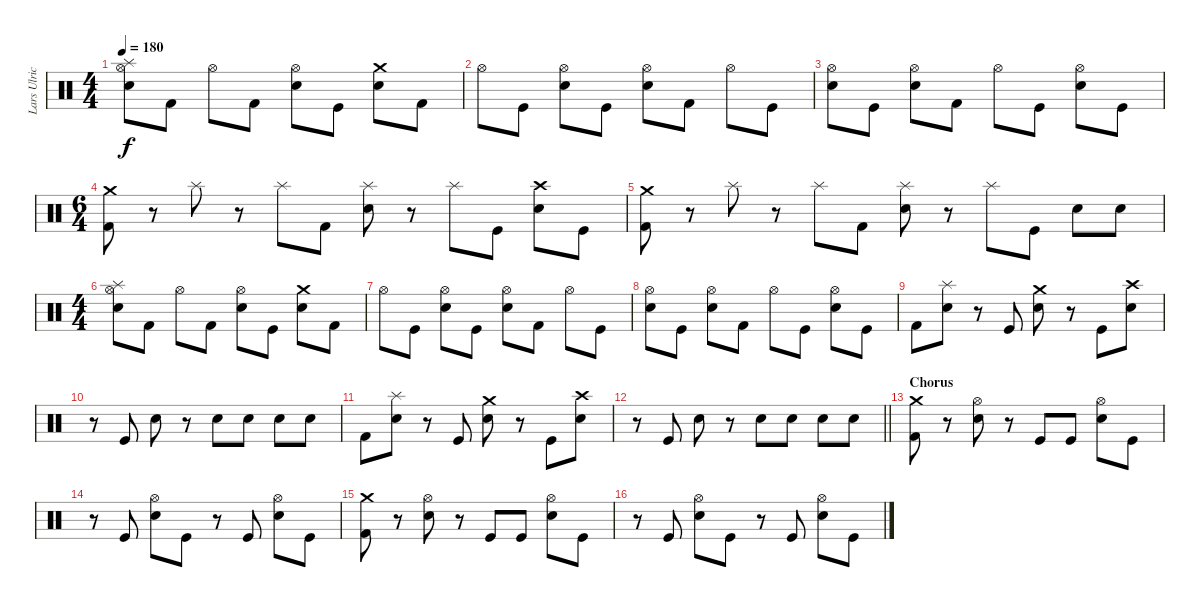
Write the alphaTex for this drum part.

\track ("Lars Ulrich" "Lars Ulric") {instrument percussion}
\staff {score}
\articulation defaults
\ts (4 4)
\tempo 180
\clef neutral
\ks c
("Splash (hit)" "Hi-Hat (open)" "Electric Snare (hit)").8{dy f} "Kick (hit) 2".8 "Hi-Hat (open)".8 "Kick (hit) 2".8 ("Hi-Hat (open)" "Electric Snare (hit)").8 "Kick (hit)".8 ("Crash medium (hit)" "Electric Snare (hit)").8 "Kick (hit) 2".8 |
"Hi-Hat (open)".8 "Kick (hit)".8 ("Hi-Hat (open)" "Electric Snare (hit)").8 "Kick (hit)".8 ("Hi-Hat (open)" "Electric Snare (hit)").8 "Kick (hit) 2".8 "Hi-Hat (open)".8 "Kick (hit)".8 |
("Hi-Hat (open)" "Electric Snare (hit)").8 "Kick (hit)".8 ("Hi-Hat (open)" "Electric Snare (hit)").8 "Kick (hit) 2".8 "Hi-Hat (open)".8 "Kick (hit)".8 ("Hi-Hat (open)" "Electric Snare (hit)").8 "Kick (hit)".8 |
\ts (6 4)
("Crash medium (hit)" "Kick (hit) 2").8 r.8 "Splash (hit)".8 r.8 "Splash (hit)".8 "Kick (hit) 2".8 ("Splash (hit)" "Electric Snare (hit)").8 r.8 "Splash (hit)".8 "Kick (hit)".8 ("Crash high (hit)" "Electric Snare (hit)").8 "Kick (hit)".8 |
("Crash medium (hit)" "Kick (hit) 2").8 r.8 "Splash (hit)".8 r.8 "Splash (hit)".8 "Kick (hit) 2".8 ("Splash (hit)" "Electric Snare (hit)").8 r.8 "Splash (hit)".8 "Kick (hit)".8 "Electric Snare (hit)".8 "Electric Snare (hit)".8 |
\ts (4 4)
("Splash (hit)" "Hi-Hat (open)" "Electric Snare (hit)").8 "Kick (hit) 2".8 "Hi-Hat (open)".8 "Kick (hit) 2".8 ("Hi-Hat (open)" "Electric Snare (hit)").8 "Kick (hit)".8 ("Crash medium (hit)" "Electric Snare (hit)").8 "Kick (hit) 2".8 |
"Hi-Hat (open)".8 "Kick (hit)".8 ("Hi-Hat (open)" "Electric Snare (hit)").8 "Kick (hit)".8 ("Hi-Hat (open)" "Electric Snare (hit)").8 "Kick (hit) 2".8 "Hi-Hat (open)".8 "Kick (hit)".8 |
("Hi-Hat (open)" "Electric Snare (hit)").8 "Kick (hit)".8 ("Hi-Hat (open)" "Electric Snare (hit)").8 "Kick (hit) 2".8 "Hi-Hat (open)".8 "Kick (hit)".8 ("Hi-Hat (open)" "Electric Snare (hit)").8 "Kick (hit)".8 |
"Kick (hit) 2".8 ("Splash (hit)" "Electric Snare (hit)").8 r.8 "Kick (hit)".8 ("Crash medium (hit)" "Electric Snare (hit)").8 r.8 "Kick (hit)".8 ("Crash high (hit)" "Electric Snare (hit)").8 |
r.8 "Kick (hit)".8 "Electric Snare (hit)".8 r.8 "Electric Snare (hit)".8 "Electric Snare (hit)".8 "Electric Snare (hit)".8 "Electric Snare (hit)".8 |
"Kick (hit) 2".8 ("Splash (hit)" "Electric Snare (hit)").8 r.8 "Kick (hit)".8 ("Crash medium (hit)" "Electric Snare (hit)").8 r.8 "Kick (hit)".8 ("Crash high (hit)" "Electric Snare (hit)").8 |
\barLineRight lightlight
r.8 "Kick (hit)".8 "Electric Snare (hit)".8 r.8 "Electric Snare (hit)".8 "Electric Snare (hit)".8 "Electric Snare (hit)".8 "Electric Snare (hit)".8 |
\section ("" "Chorus")
("Crash medium (hit)" "Kick (hit) 2").8 r.8 ("Hi-Hat (open)" "Electric Snare (hit)").8 r.8 "Kick (hit)".8 "Kick (hit)".8 ("Hi-Hat (open)" "Electric Snare (hit)").8 "Kick (hit)".8 |
r.8 "Kick (hit)".8 ("Hi-Hat (open)" "Electric Snare (hit)").8 "Kick (hit)".8 r.8 "Kick (hit)".8 ("Hi-Hat (open)" "Electric Snare (hit)").8 "Kick (hit)".8 |
("Crash medium (hit)" "Kick (hit) 2").8 r.8 ("Hi-Hat (open)" "Electric Snare (hit)").8 r.8 "Kick (hit)".8 "Kick (hit)".8 ("Hi-Hat (open)" "Electric Snare (hit)").8 "Kick (hit)".8 |
r.8 "Kick (hit)".8 ("Hi-Hat (open)" "Electric Snare (hit)").8 "Kick (hit)".8 r.8 "Kick (hit)".8 ("Hi-Hat (open)" "Electric Snare (hit)").8 "Kick (hit)".8
